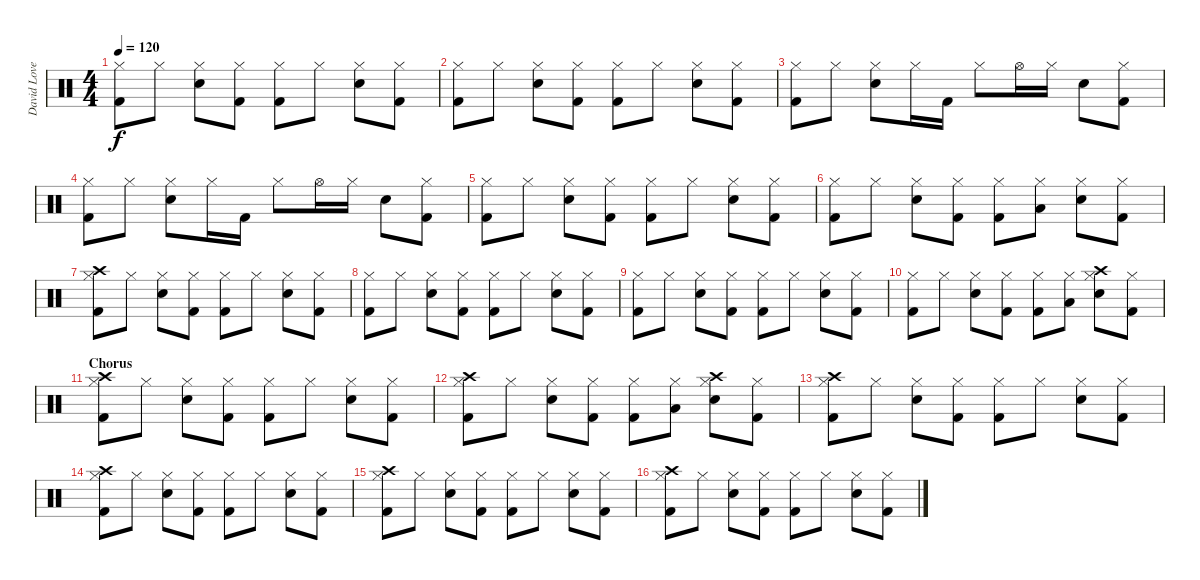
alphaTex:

\track ("David Lovering" "David Love") {instrument percussion}
\staff {score}
\articulation defaults
\ts (4 4)
\tempo 120
\clef neutral
\ks c
("Hi-Hat (closed)" "Kick (hit) 2").8{dy f} "Hi-Hat (closed)".8 ("Hi-Hat (closed)" "Snare (hit) 2").8 ("Hi-Hat (closed)" "Kick (hit) 2").8 ("Hi-Hat (closed)" "Kick (hit) 2").8 "Hi-Hat (closed)".8 ("Hi-Hat (closed)" "Snare (hit) 2").8 ("Hi-Hat (closed)" "Kick (hit) 2").8 |
("Hi-Hat (closed)" "Kick (hit) 2").8 "Hi-Hat (closed)".8 ("Hi-Hat (closed)" "Snare (hit) 2").8 ("Hi-Hat (closed)" "Kick (hit) 2").8 ("Hi-Hat (closed)" "Kick (hit) 2").8 "Hi-Hat (closed)".8 ("Hi-Hat (closed)" "Snare (hit) 2").8 ("Hi-Hat (closed)" "Kick (hit) 2").8 |
("Hi-Hat (closed)" "Kick (hit) 2").8 "Hi-Hat (closed)".8 ("Hi-Hat (closed)" "Snare (hit) 2").8 "Hi-Hat (closed)".16 "Kick (hit) 2".16 "Hi-Hat (closed)".8 "Hi-Hat (open)".16 "Hi-Hat (closed)".16 "Snare (hit) 2".8 ("Hi-Hat (closed)" "Kick (hit) 2").8 |
("Hi-Hat (closed)" "Kick (hit) 2").8 "Hi-Hat (closed)".8 ("Hi-Hat (closed)" "Snare (hit) 2").8 "Hi-Hat (closed)".16 "Kick (hit) 2".16 "Hi-Hat (closed)".8 "Hi-Hat (open)".16 "Hi-Hat (closed)".16 "Snare (hit) 2".8 ("Hi-Hat (closed)" "Kick (hit) 2").8 |
("Hi-Hat (closed)" "Kick (hit) 2").8 "Hi-Hat (closed)".8 ("Hi-Hat (closed)" "Snare (hit) 2").8 ("Hi-Hat (closed)" "Kick (hit) 2").8 ("Hi-Hat (closed)" "Kick (hit) 2").8 "Hi-Hat (closed)".8 ("Hi-Hat (closed)" "Snare (hit) 2").8 ("Hi-Hat (closed)" "Kick (hit) 2").8 |
("Hi-Hat (closed)" "Kick (hit) 2").8 "Hi-Hat (closed)".8 ("Hi-Hat (closed)" "Snare (hit) 2").8 ("Hi-Hat (closed)" "Kick (hit) 2").8 ("Hi-Hat (closed)" "Kick (hit) 2").8 ("Hi-Hat (closed)" "Low Tom (hit)").8 ("Hi-Hat (closed)" "Snare (hit) 2").8 ("Hi-Hat (closed)" "Kick (hit) 2").8 |
("Hi-Hat (closed)" "Crash high (hit)" "Kick (hit) 2").8 "Hi-Hat (closed)".8 ("Hi-Hat (closed)" "Snare (hit) 2").8 ("Hi-Hat (closed)" "Kick (hit) 2").8 ("Hi-Hat (closed)" "Kick (hit) 2").8 "Hi-Hat (closed)".8 ("Hi-Hat (closed)" "Snare (hit) 2").8 ("Hi-Hat (closed)" "Kick (hit) 2").8 |
("Hi-Hat (closed)" "Kick (hit) 2").8 "Hi-Hat (closed)".8 ("Hi-Hat (closed)" "Snare (hit) 2").8 ("Hi-Hat (closed)" "Kick (hit) 2").8 ("Hi-Hat (closed)" "Kick (hit) 2").8 "Hi-Hat (closed)".8 ("Hi-Hat (closed)" "Snare (hit) 2").8 ("Hi-Hat (closed)" "Kick (hit) 2").8 |
("Hi-Hat (closed)" "Kick (hit) 2").8 "Hi-Hat (closed)".8 ("Hi-Hat (closed)" "Snare (hit) 2").8 ("Hi-Hat (closed)" "Kick (hit) 2").8 ("Hi-Hat (closed)" "Kick (hit) 2").8 "Hi-Hat (closed)".8 ("Hi-Hat (closed)" "Snare (hit) 2").8 ("Hi-Hat (closed)" "Kick (hit) 2").8 |
("Hi-Hat (closed)" "Kick (hit) 2").8 "Hi-Hat (closed)".8 ("Hi-Hat (closed)" "Snare (hit) 2").8 ("Hi-Hat (closed)" "Kick (hit) 2").8 ("Hi-Hat (closed)" "Kick (hit) 2").8 ("Hi-Hat (closed)" "Low Tom (hit)").8 ("Hi-Hat (closed)" "Crash high (hit)" "Snare (hit) 2").8 ("Hi-Hat (closed)" "Kick (hit) 2").8 |
\section ("" "Chorus")
("Hi-Hat (closed)" "Crash high (hit)" "Kick (hit) 2").8 "Hi-Hat (closed)".8 ("Hi-Hat (closed)" "Snare (hit) 2").8 ("Hi-Hat (closed)" "Kick (hit) 2").8 ("Hi-Hat (closed)" "Kick (hit) 2").8 "Hi-Hat (closed)".8 ("Hi-Hat (closed)" "Snare (hit) 2").8 ("Hi-Hat (closed)" "Kick (hit) 2").8 |
("Hi-Hat (closed)" "Crash high (hit)" "Kick (hit) 2").8 "Hi-Hat (closed)".8 ("Hi-Hat (closed)" "Snare (hit) 2").8 ("Hi-Hat (closed)" "Kick (hit) 2").8 ("Hi-Hat (closed)" "Kick (hit) 2").8 ("Hi-Hat (closed)" "Low Tom (hit)").8 ("Hi-Hat (closed)" "Crash high (hit)" "Snare (hit) 2").8 ("Hi-Hat (closed)" "Kick (hit) 2").8 |
("Hi-Hat (closed)" "Crash high (hit)" "Kick (hit) 2").8 "Hi-Hat (closed)".8 ("Hi-Hat (closed)" "Snare (hit) 2").8 ("Hi-Hat (closed)" "Kick (hit) 2").8 ("Hi-Hat (closed)" "Kick (hit) 2").8 "Hi-Hat (closed)".8 ("Hi-Hat (closed)" "Snare (hit) 2").8 ("Hi-Hat (closed)" "Kick (hit) 2").8 |
("Hi-Hat (closed)" "Crash high (hit)" "Kick (hit) 2").8 "Hi-Hat (closed)".8 ("Hi-Hat (closed)" "Snare (hit) 2").8 ("Hi-Hat (closed)" "Kick (hit) 2").8 ("Hi-Hat (closed)" "Kick (hit) 2").8 "Hi-Hat (closed)".8 ("Hi-Hat (closed)" "Snare (hit) 2").8 ("Hi-Hat (closed)" "Kick (hit) 2").8 |
("Hi-Hat (closed)" "Crash high (hit)" "Kick (hit) 2").8 "Hi-Hat (closed)".8 ("Hi-Hat (closed)" "Snare (hit) 2").8 ("Hi-Hat (closed)" "Kick (hit) 2").8 ("Hi-Hat (closed)" "Kick (hit) 2").8 "Hi-Hat (closed)".8 ("Hi-Hat (closed)" "Snare (hit) 2").8 ("Hi-Hat (closed)" "Kick (hit) 2").8 |
("Hi-Hat (closed)" "Crash high (hit)" "Kick (hit) 2").8 "Hi-Hat (closed)".8 ("Hi-Hat (closed)" "Snare (hit) 2").8 ("Hi-Hat (closed)" "Kick (hit) 2").8 ("Hi-Hat (closed)" "Kick (hit) 2").8 "Hi-Hat (closed)".8 ("Hi-Hat (closed)" "Snare (hit) 2").8 ("Hi-Hat (closed)" "Kick (hit) 2").8
